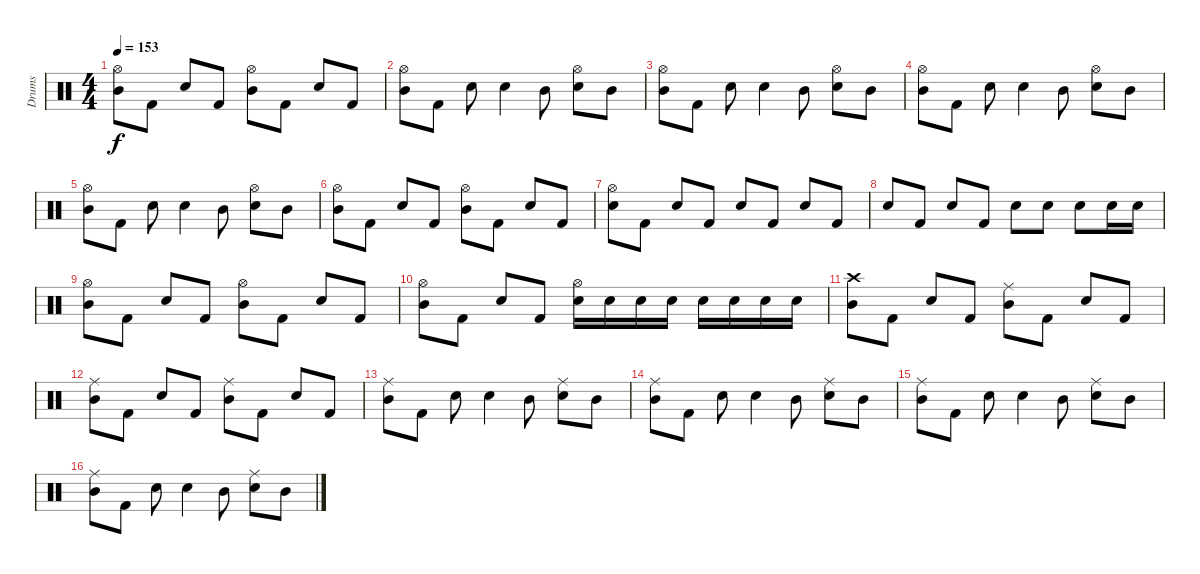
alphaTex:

\track ("Drums" "Drums") {instrument percussion}
\staff {score}
\articulation defaults
\ts (4 4)
\tempo 153
\clef neutral
\ks c
("Hi-Hat (open)" "Mid Tom (hit)").8{dy f} "Kick (hit) 2".8 "Electric Snare (hit)".8 "Kick (hit) 2".8 ("Hi-Hat (open)" "Mid Tom (hit)").8 "Kick (hit) 2".8 "Electric Snare (hit)".8 "Kick (hit) 2".8 |
("Hi-Hat (open)" "Mid Tom (hit)").8 "Kick (hit) 2".8 "Electric Snare (hit)".8 "Electric Snare (hit)".4 "Mid Tom (hit)".8 ("Hi-Hat (open)" "Electric Snare (hit)").8 "Mid Tom (hit)".8 |
("Hi-Hat (open)" "Mid Tom (hit)").8 "Kick (hit) 2".8 "Electric Snare (hit)".8 "Electric Snare (hit)".4 "Mid Tom (hit)".8 ("Hi-Hat (open)" "Electric Snare (hit)").8 "Mid Tom (hit)".8 |
("Hi-Hat (open)" "Mid Tom (hit)").8 "Kick (hit) 2".8 "Electric Snare (hit)".8 "Electric Snare (hit)".4 "Mid Tom (hit)".8 ("Hi-Hat (open)" "Electric Snare (hit)").8 "Mid Tom (hit)".8 |
("Hi-Hat (open)" "Mid Tom (hit)").8 "Kick (hit) 2".8 "Electric Snare (hit)".8 "Electric Snare (hit)".4 "Mid Tom (hit)".8 ("Hi-Hat (open)" "Electric Snare (hit)").8 "Mid Tom (hit)".8 |
("Hi-Hat (open)" "Mid Tom (hit)").8 "Kick (hit) 2".8 "Electric Snare (hit)".8 "Kick (hit) 2".8 ("Hi-Hat (open)" "Mid Tom (hit)").8 "Kick (hit) 2".8 "Electric Snare (hit)".8 "Kick (hit) 2".8 |
("Hi-Hat (open)" "Electric Snare (hit)").8 "Kick (hit) 2".8 "Electric Snare (hit)".8 "Kick (hit) 2".8 "Electric Snare (hit)".8 "Kick (hit) 2".8 "Electric Snare (hit)".8 "Kick (hit) 2".8 |
"Electric Snare (hit)".8 "Kick (hit) 2".8 "Electric Snare (hit)".8 "Kick (hit) 2".8 "Electric Snare (hit)".8 "Electric Snare (hit)".8 "Electric Snare (hit)".8 "Electric Snare (hit)".16 "Electric Snare (hit)".16 |
("Hi-Hat (open)" "Mid Tom (hit)").8 "Kick (hit) 2".8 "Electric Snare (hit)".8 "Kick (hit) 2".8 ("Hi-Hat (open)" "Mid Tom (hit)").8 "Kick (hit) 2".8 "Electric Snare (hit)".8 "Kick (hit) 2".8 |
("Hi-Hat (open)" "Mid Tom (hit)").8 "Kick (hit) 2".8 "Electric Snare (hit)".8 "Kick (hit) 2".8 ("Hi-Hat (open)" "Electric Snare (hit)").16 "Electric Snare (hit)".16 "Electric Snare (hit)".16 "Electric Snare (hit)".16 "Electric Snare (hit)".16 "Electric Snare (hit)".16 "Electric Snare (hit)".16 "Electric Snare (hit)".16 |
("Crash high (hit)" "Mid Tom (hit)").8 "Kick (hit) 2".8 "Electric Snare (hit)".8 "Kick (hit) 2".8 ("Ride (middle)" "Mid Tom (hit)").8 "Kick (hit) 2".8 "Electric Snare (hit)".8 "Kick (hit) 2".8 |
("Ride (middle)" "Mid Tom (hit)").8 "Kick (hit) 2".8 "Electric Snare (hit)".8 "Kick (hit) 2".8 ("Ride (middle)" "Mid Tom (hit)").8 "Kick (hit) 2".8 "Electric Snare (hit)".8 "Kick (hit) 2".8 |
("Ride (middle)" "Mid Tom (hit)").8 "Kick (hit) 2".8 "Electric Snare (hit)".8 "Electric Snare (hit)".4 "Mid Tom (hit)".8 ("Ride (middle)" "Electric Snare (hit)").8 "Mid Tom (hit)".8 |
("Ride (middle)" "Mid Tom (hit)").8 "Kick (hit) 2".8 "Electric Snare (hit)".8 "Electric Snare (hit)".4 "Mid Tom (hit)".8 ("Ride (middle)" "Electric Snare (hit)").8 "Mid Tom (hit)".8 |
("Ride (middle)" "Mid Tom (hit)").8 "Kick (hit) 2".8 "Electric Snare (hit)".8 "Electric Snare (hit)".4 "Mid Tom (hit)".8 ("Ride (middle)" "Electric Snare (hit)").8 "Mid Tom (hit)".8 |
("Ride (middle)" "Mid Tom (hit)").8 "Kick (hit) 2".8 "Electric Snare (hit)".8 "Electric Snare (hit)".4 "Mid Tom (hit)".8 ("Ride (middle)" "Electric Snare (hit)").8 "Mid Tom (hit)".8
